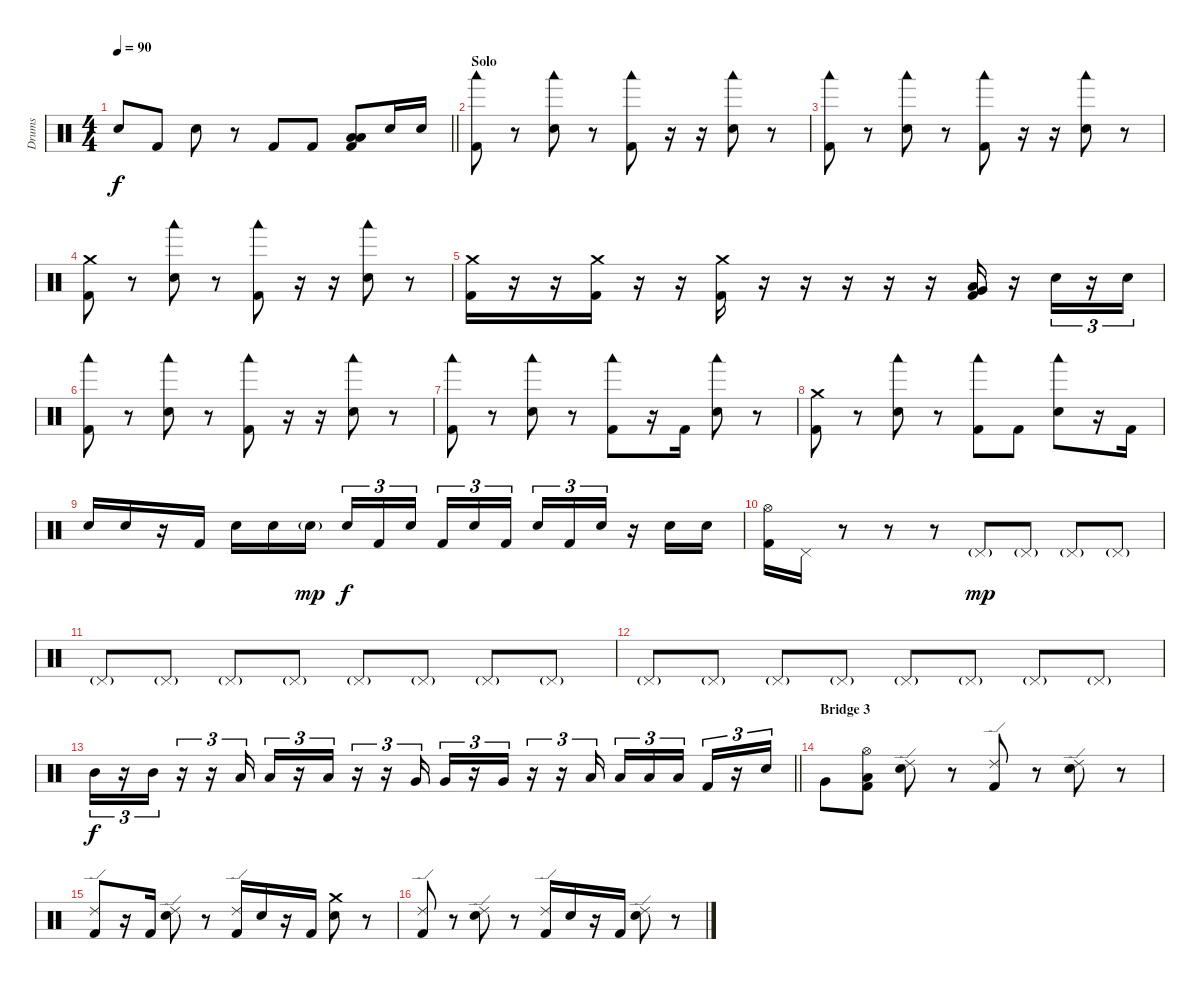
\track ("Drums" "Drums") {instrument percussion}
\staff {score}
\articulation defaults
\ts (4 4)
\tempo 90
\clef neutral
\barLineRight lightlight
\ks c "Snare (hit) 2".8{dy f} "Kick (hit) 2".8 "Snare (hit) 2".8
r.8 "Kick (hit) 2".8 "Kick (hit) 2".8 ("Low Tom (hit)" "Low Tom (hit)" "Kick (hit) 2").8 "Snare (hit) 2".16 "Snare (hit) 2".16 |
\section ("" "Solo")
("Woodblock low (hit)" "Kick (hit) 2").8 r.8 ("Woodblock low (hit)" "Snare (hit) 2").8 r.8 ("Woodblock low (hit)" "Kick (hit) 2").8 r.16 r.16 ("Woodblock low (hit)" "Snare (hit) 2").8 r.8 |
("Woodblock low (hit)" "Kick (hit) 2").8 r.8 ("Woodblock low (hit)" "Snare (hit) 2").8 r.8 ("Woodblock low (hit)" "Kick (hit) 2").8 r.16 r.16 ("Woodblock low (hit)" "Snare (hit) 2").8 r.8 |
("Crash medium (hit)" "Kick (hit) 2").8 r.8 ("Woodblock low (hit)" "Snare (hit) 2").8 r.8 ("Woodblock low (hit)" "Kick (hit) 2").8 r.16 r.16 ("Woodblock low (hit)" "Snare (hit) 2").8 r.8 |
("Crash medium (hit)" "Kick (hit) 2").16 r.16 r.16 ("Crash medium (hit)" "Kick (hit) 2").16 r.16 r.16 ("Crash medium (hit)" "Kick (hit) 2").16 r.16 r.16 r.16 r.16 r.16 ("Very Low Tom (hit)" "Low Floor Tom (hit)" "Kick (hit) 2").16 r.16 "Snare (hit) 2".16{tu (3 2)} r.16{tu (3 2)} "Snare (hit) 2".16{tu (3 2)} |
("Woodblock low (hit)" "Kick (hit) 2").8 r.8 ("Woodblock low (hit)" "Snare (hit) 2").8 r.8 ("Woodblock low (hit)" "Kick (hit) 2").8 r.16 r.16 ("Woodblock low (hit)" "Snare (hit) 2").8 r.8 |
("Woodblock low (hit)" "Kick (hit) 2").8 r.8 ("Woodblock low (hit)" "Snare (hit) 2").8 r.8 ("Woodblock low (hit)" "Kick (hit) 2").8 r.16 "Kick (hit) 2".16 ("Woodblock low (hit)" "Snare (hit) 2").8 r.8 |
("Crash medium (hit)" "Kick (hit) 2").8 r.8 ("Woodblock low (hit)" "Snare (hit) 2").8 r.8 ("Woodblock low (hit)" "Kick (hit) 2").8 "Kick (hit) 2".8 ("Woodblock low (hit)" "Snare (hit) 2").8 r.16 "Kick (hit) 2".16 |
"Snare (hit) 2".16 "Snare (hit) 2".16 r.16 "Kick (hit) 2".16 "Snare (hit) 2".16 "Snare (hit) 2".16 "Snare (hit) 2"{g}.16{dy mp beam splitsecondary} "Snare (hit) 2".16{tu (3 2) dy f} "Kick (hit) 2".16{tu (3 2)} "Snare (hit) 2".16{tu (3 2) beam splitsecondary} "Kick (hit) 2".16{tu (3 2)} "Snare (hit) 2".16{tu (3 2)} "Kick (hit) 2".16{tu (3 2) beam splitsecondary} "Snare (hit) 2".16{tu (3 2)} "Kick (hit) 2".16{tu (3 2)} "Snare (hit) 2".16{tu (3 2)} r.16 "Snare (hit) 2".16 "Snare (hit) 2".16 |
("Hi-Hat (open)" "Kick (hit) 2").16 "Pedal Hi-Hat (hit)".16 r.8 r.8 r.8 "Pedal Hi-Hat (hit)"{g}.8{dy mp} "Pedal Hi-Hat (hit)"{g}.8 "Pedal Hi-Hat (hit)"{g}.8 "Pedal Hi-Hat (hit)"{g}.8 |
"Pedal Hi-Hat (hit)"{g}.8 "Pedal Hi-Hat (hit)"{g}.8 "Pedal Hi-Hat (hit)"{g}.8 "Pedal Hi-Hat (hit)"{g}.8 "Pedal Hi-Hat (hit)"{g}.8 "Pedal Hi-Hat (hit)"{g}.8 "Pedal Hi-Hat (hit)"{g}.8 "Pedal Hi-Hat (hit)"{g}.8 |
"Pedal Hi-Hat (hit)"{g}.8 "Pedal Hi-Hat (hit)"{g}.8 "Pedal Hi-Hat (hit)"{g}.8 "Pedal Hi-Hat (hit)"{g}.8 "Pedal Hi-Hat (hit)"{g}.8 "Pedal Hi-Hat (hit)"{g}.8 "Pedal Hi-Hat (hit)"{g}.8 "Pedal Hi-Hat (hit)"{g}.8 |
\barLineRight lightlight "Mid Tom (hit)".16{tu (3 2) dy f}
r.16{tu (3 2)} "Mid Tom (hit)".16{tu (3 2)} r.16{tu (3 2)} r.16{tu (3 2)} "Low Tom (hit)".16{tu (3 2)} "Low Tom (hit)".16{tu (3 2)} r.16{tu (3 2)} "Low Tom (hit)".16{tu (3 2)} r.16{tu (3 2)} r.16{tu (3 2)} "Very Low Tom (hit)".16{tu (3 2)} "Very Low Tom (hit)".16{tu (3 2)} r.16{tu (3 2)} "Very Low Tom (hit)".16{tu (3 2)} r.16{tu (3 2)} r.16{tu (3 2)} "Low Floor Tom (hit)".16{tu (3 2)} "Low Floor Tom (hit)".16{tu (3 2)} "Low Floor Tom (hit)".16{tu (3 2)} "Low Floor Tom (hit)".16{tu (3 2) beam splitsecondary} "Kick (hit) 2".16{tu (3 2)} r.16{tu (3 2)} "Snare (hit) 2".16{tu (3 2)} |
\section ("" "Bridge 3")
"Very Low Tom (hit)".8 ("Hi-Hat (open)" "Low Floor Tom (hit)" "Kick (hit) 2").8 ("Ride (edge) 2" "Snare (hit) 2").8 r.8 ("Ride (edge) 2" "Kick (hit) 2").8 r.8 ("Ride (edge) 2" "Snare (hit) 2").8 r.8 |
("Ride (edge) 2" "Kick (hit) 2").8 r.16 "Kick (hit) 2".16 ("Ride (edge) 2" "Snare (hit) 2").8 r.8 ("Ride (edge) 2" "Kick (hit) 2").16 "Snare (hit) 2".16 r.16 "Kick (hit) 2".16 ("Crash medium (hit)" "Snare (hit) 2").8 r.8 |
("Ride (edge) 2" "Kick (hit) 2").8 r.8 ("Ride (edge) 2" "Snare (hit) 2").8 r.8 ("Ride (edge) 2" "Kick (hit) 2").16 "Snare (hit) 2".16 r.16 "Kick (hit) 2".16 ("Ride (edge) 2" "Snare (hit) 2").8 r.8
